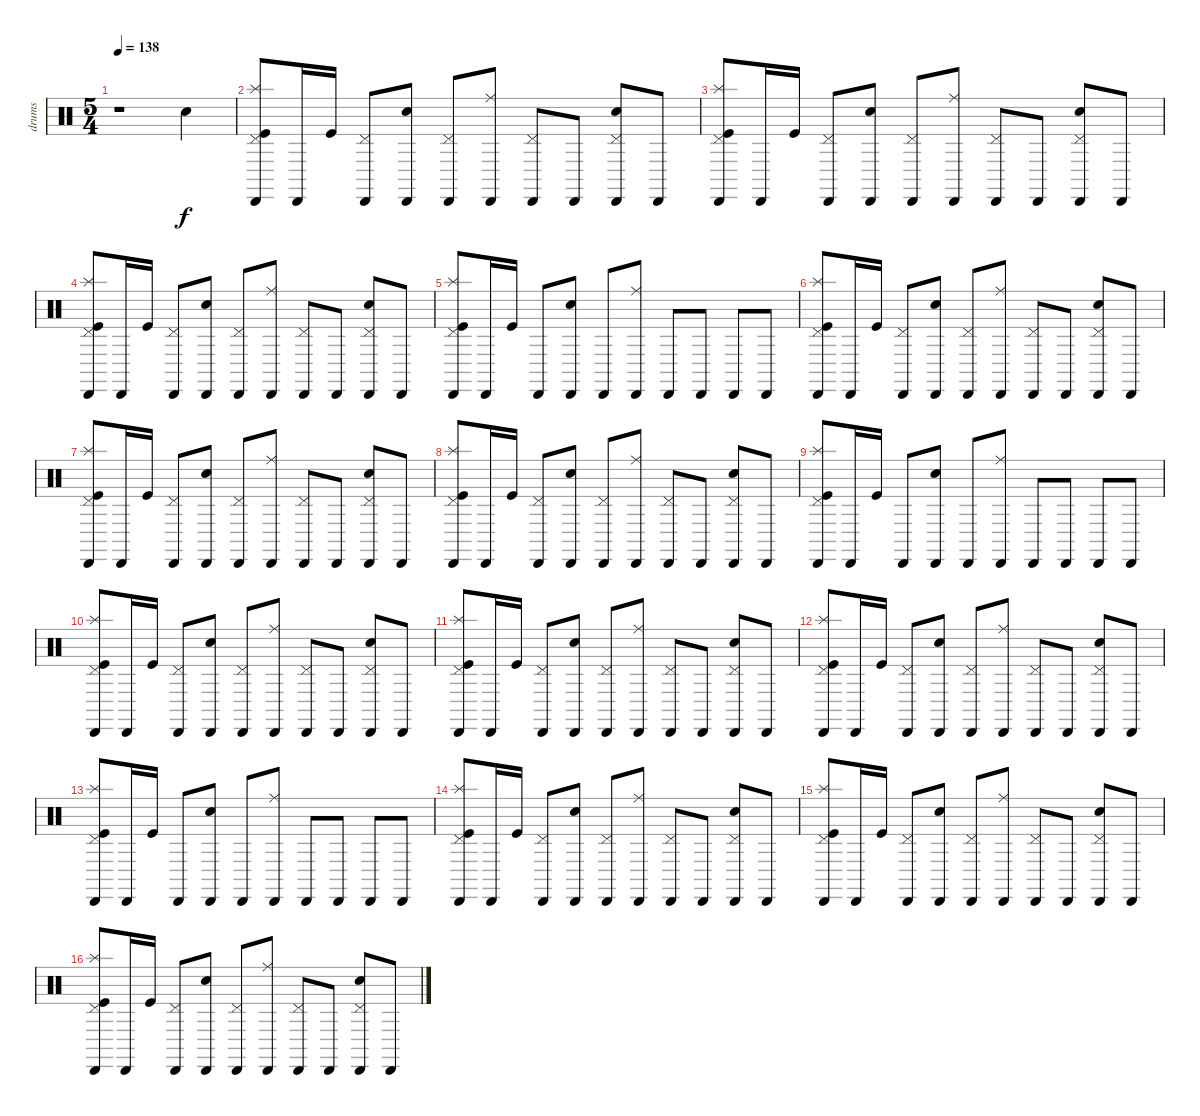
\track ("drums" "drums") {instrument percussion}
\staff {score}
\articulation defaults
\ts (5 4)
\tempo 138
\clef neutral
\ks c
r.1{dy f} "Snare (hit) 2".4 |
("Splash (hit)" "Pedal Hi-Hat (hit)" "Kick (hit)" "Cabasa (hit)").8 "Cabasa (hit)".16 "Kick (hit)".16 ("Pedal Hi-Hat (hit)" "Cabasa (hit)").8 ("Snare (hit) 2" "Cabasa (hit)").8 ("Pedal Hi-Hat (hit)" "Cabasa (hit)").8 ("Ride (middle)" "Cabasa (hit)").8 ("Pedal Hi-Hat (hit)" "Cabasa (hit)").8 "Cabasa (hit)".8 ("Snare (hit) 2" "Pedal Hi-Hat (hit)" "Cabasa (hit)").8 "Cabasa (hit)".8 |
("Pedal Hi-Hat (hit)" "Splash (hit)" "Kick (hit)" "Cabasa (hit)").8 "Cabasa (hit)".16 "Kick (hit)".16 ("Pedal Hi-Hat (hit)" "Cabasa (hit)").8 ("Snare (hit) 2" "Cabasa (hit)").8 ("Pedal Hi-Hat (hit)" "Cabasa (hit)").8 ("Ride (middle)" "Cabasa (hit)").8 ("Pedal Hi-Hat (hit)" "Cabasa (hit)").8 "Cabasa (hit)".8 ("Snare (hit) 2" "Pedal Hi-Hat (hit)" "Cabasa (hit)").8 "Cabasa (hit)".8 |
("Kick (hit)" "Pedal Hi-Hat (hit)" "Splash (hit)" "Cabasa (hit)").8 "Cabasa (hit)".16 "Kick (hit)".16 ("Pedal Hi-Hat (hit)" "Cabasa (hit)").8 ("Snare (hit) 2" "Cabasa (hit)").8 ("Pedal Hi-Hat (hit)" "Cabasa (hit)").8 ("Ride (middle)" "Cabasa (hit)").8 ("Pedal Hi-Hat (hit)" "Cabasa (hit)").8 "Cabasa (hit)".8 ("Snare (hit) 2" "Pedal Hi-Hat (hit)" "Cabasa (hit)").8 "Cabasa (hit)".8 |
("Pedal Hi-Hat (hit)" "Splash (hit)" "Kick (hit)" "Cabasa (hit)").8 "Cabasa (hit)".16 "Kick (hit)".16 "Cabasa (hit)".8 ("Snare (hit) 2" "Cabasa (hit)").8 "Cabasa (hit)".8 ("Ride (middle)" "Cabasa (hit)").8 "Cabasa (hit)".8 "Cabasa (hit)".8 "Cabasa (hit)".8 "Cabasa (hit)".8 |
("Kick (hit)" "Pedal Hi-Hat (hit)" "Splash (hit)" "Cabasa (hit)").8 "Cabasa (hit)".16 "Kick (hit)".16 ("Pedal Hi-Hat (hit)" "Cabasa (hit)").8 ("Snare (hit) 2" "Cabasa (hit)").8 ("Pedal Hi-Hat (hit)" "Cabasa (hit)").8 ("Ride (middle)" "Cabasa (hit)").8 ("Pedal Hi-Hat (hit)" "Cabasa (hit)").8 "Cabasa (hit)".8 ("Snare (hit) 2" "Pedal Hi-Hat (hit)" "Cabasa (hit)").8 "Cabasa (hit)".8 |
("Pedal Hi-Hat (hit)" "Splash (hit)" "Kick (hit)" "Cabasa (hit)").8 "Cabasa (hit)".16 "Kick (hit)".16 ("Pedal Hi-Hat (hit)" "Cabasa (hit)").8 ("Snare (hit) 2" "Cabasa (hit)").8 ("Pedal Hi-Hat (hit)" "Cabasa (hit)").8 ("Ride (middle)" "Cabasa (hit)").8 ("Pedal Hi-Hat (hit)" "Cabasa (hit)").8 "Cabasa (hit)".8 ("Snare (hit) 2" "Pedal Hi-Hat (hit)" "Cabasa (hit)").8 "Cabasa (hit)".8 |
("Kick (hit)" "Pedal Hi-Hat (hit)" "Splash (hit)" "Cabasa (hit)").8 "Cabasa (hit)".16 "Kick (hit)".16 ("Pedal Hi-Hat (hit)" "Cabasa (hit)").8 ("Snare (hit) 2" "Cabasa (hit)").8 ("Pedal Hi-Hat (hit)" "Cabasa (hit)").8 ("Ride (middle)" "Cabasa (hit)").8 ("Pedal Hi-Hat (hit)" "Cabasa (hit)").8 "Cabasa (hit)".8 ("Snare (hit) 2" "Pedal Hi-Hat (hit)" "Cabasa (hit)").8 "Cabasa (hit)".8 |
("Pedal Hi-Hat (hit)" "Splash (hit)" "Kick (hit)" "Cabasa (hit)").8 "Cabasa (hit)".16 "Kick (hit)".16 "Cabasa (hit)".8 ("Snare (hit) 2" "Cabasa (hit)").8 "Cabasa (hit)".8 ("Ride (middle)" "Cabasa (hit)").8 "Cabasa (hit)".8 "Cabasa (hit)".8 "Cabasa (hit)".8 "Cabasa (hit)".8 |
("Kick (hit)" "Pedal Hi-Hat (hit)" "Splash (hit)" "Cabasa (hit)").8 "Cabasa (hit)".16 "Kick (hit)".16 ("Pedal Hi-Hat (hit)" "Cabasa (hit)").8 ("Snare (hit) 2" "Cabasa (hit)").8 ("Pedal Hi-Hat (hit)" "Cabasa (hit)").8 ("Ride (middle)" "Cabasa (hit)").8 ("Pedal Hi-Hat (hit)" "Cabasa (hit)").8 "Cabasa (hit)".8 ("Snare (hit) 2" "Pedal Hi-Hat (hit)" "Cabasa (hit)").8 "Cabasa (hit)".8 |
("Pedal Hi-Hat (hit)" "Splash (hit)" "Kick (hit)" "Cabasa (hit)").8 "Cabasa (hit)".16 "Kick (hit)".16 ("Pedal Hi-Hat (hit)" "Cabasa (hit)").8 ("Snare (hit) 2" "Cabasa (hit)").8 ("Pedal Hi-Hat (hit)" "Cabasa (hit)").8 ("Ride (middle)" "Cabasa (hit)").8 ("Pedal Hi-Hat (hit)" "Cabasa (hit)").8 "Cabasa (hit)".8 ("Snare (hit) 2" "Pedal Hi-Hat (hit)" "Cabasa (hit)").8 "Cabasa (hit)".8 |
("Kick (hit)" "Pedal Hi-Hat (hit)" "Splash (hit)" "Cabasa (hit)").8 "Cabasa (hit)".16 "Kick (hit)".16 ("Pedal Hi-Hat (hit)" "Cabasa (hit)").8 ("Snare (hit) 2" "Cabasa (hit)").8 ("Pedal Hi-Hat (hit)" "Cabasa (hit)").8 ("Ride (middle)" "Cabasa (hit)").8 ("Pedal Hi-Hat (hit)" "Cabasa (hit)").8 "Cabasa (hit)".8 ("Snare (hit) 2" "Pedal Hi-Hat (hit)" "Cabasa (hit)").8 "Cabasa (hit)".8 |
("Pedal Hi-Hat (hit)" "Splash (hit)" "Kick (hit)" "Cabasa (hit)").8 "Cabasa (hit)".16 "Kick (hit)".16 "Cabasa (hit)".8 ("Snare (hit) 2" "Cabasa (hit)").8 "Cabasa (hit)".8 ("Ride (middle)" "Cabasa (hit)").8 "Cabasa (hit)".8 "Cabasa (hit)".8 "Cabasa (hit)".8 "Cabasa (hit)".8 |
("Kick (hit)" "Pedal Hi-Hat (hit)" "Splash (hit)" "Cabasa (hit)").8 "Cabasa (hit)".16 "Kick (hit)".16 ("Pedal Hi-Hat (hit)" "Cabasa (hit)").8 ("Snare (hit) 2" "Cabasa (hit)").8 ("Pedal Hi-Hat (hit)" "Cabasa (hit)").8 ("Ride (middle)" "Cabasa (hit)").8 ("Pedal Hi-Hat (hit)" "Cabasa (hit)").8 "Cabasa (hit)".8 ("Snare (hit) 2" "Pedal Hi-Hat (hit)" "Cabasa (hit)").8 "Cabasa (hit)".8 |
("Pedal Hi-Hat (hit)" "Splash (hit)" "Kick (hit)" "Cabasa (hit)").8 "Cabasa (hit)".16 "Kick (hit)".16 ("Pedal Hi-Hat (hit)" "Cabasa (hit)").8 ("Snare (hit) 2" "Cabasa (hit)").8 ("Pedal Hi-Hat (hit)" "Cabasa (hit)").8 ("Ride (middle)" "Cabasa (hit)").8 ("Pedal Hi-Hat (hit)" "Cabasa (hit)").8 "Cabasa (hit)".8 ("Snare (hit) 2" "Pedal Hi-Hat (hit)" "Cabasa (hit)").8 "Cabasa (hit)".8 |
("Kick (hit)" "Pedal Hi-Hat (hit)" "Splash (hit)" "Cabasa (hit)").8 "Cabasa (hit)".16 "Kick (hit)".16 ("Pedal Hi-Hat (hit)" "Cabasa (hit)").8 ("Snare (hit) 2" "Cabasa (hit)").8 ("Pedal Hi-Hat (hit)" "Cabasa (hit)").8 ("Ride (middle)" "Cabasa (hit)").8 ("Pedal Hi-Hat (hit)" "Cabasa (hit)").8 "Cabasa (hit)".8 ("Snare (hit) 2" "Pedal Hi-Hat (hit)" "Cabasa (hit)").8 "Cabasa (hit)".8
